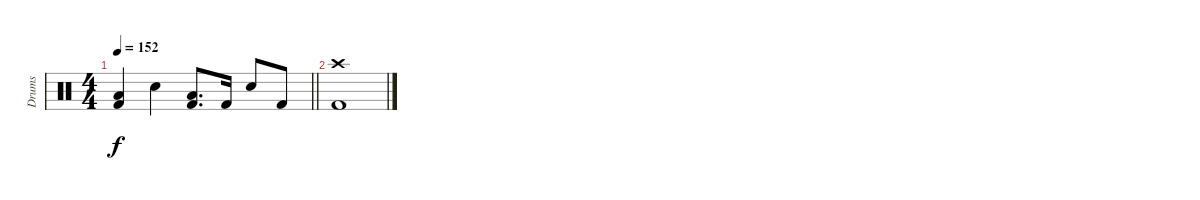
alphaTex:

\track ("Drums" "Drums") {instrument percussion}
\staff {score}
\articulation defaults
\ts (4 4)
\tempo 152
\clef neutral
\barLineRight lightlight
\ks c
("Low Floor Tom (hit)" "Kick (hit) 2").4{dy f} "Snare (hit) 2".4 ("Low Floor Tom (hit)" "Kick (hit) 2").8{d} "Kick (hit) 2".16 "Snare (hit) 2".8 "Kick (hit) 2".8 |
("Crash high (hit)" "Kick (hit) 2").1
